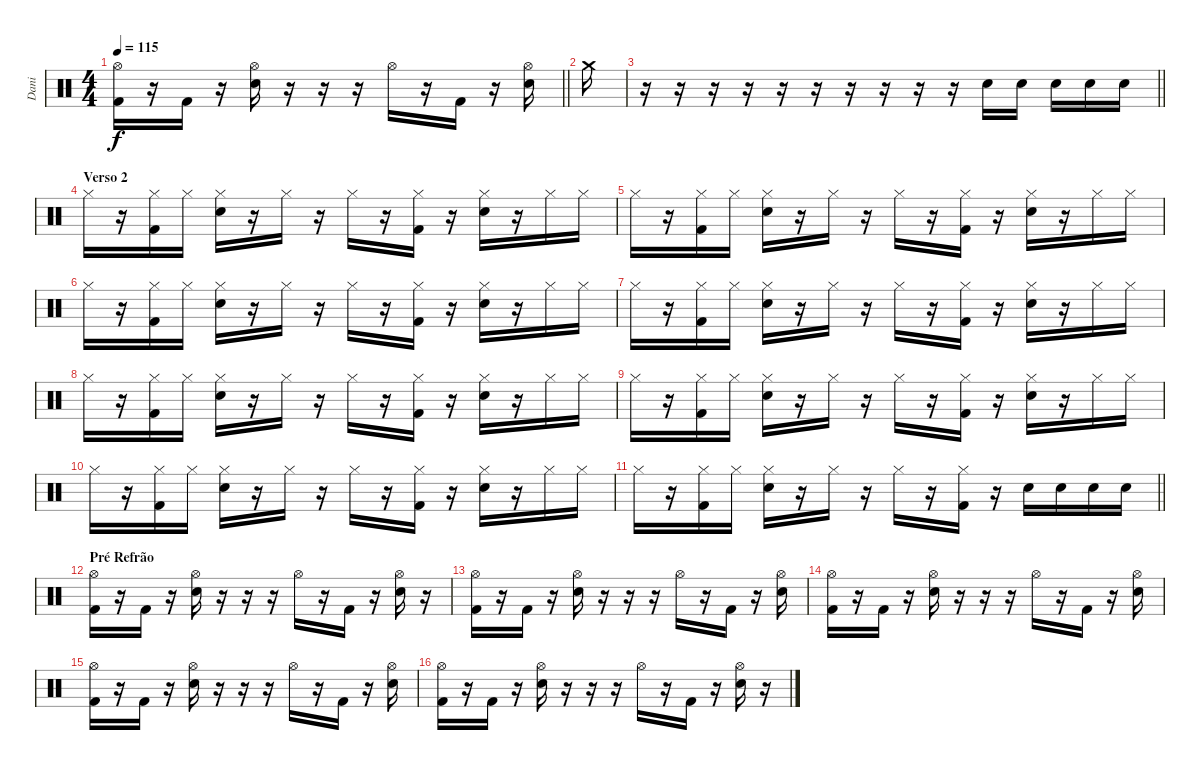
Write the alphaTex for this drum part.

\track ("Dani" "Dani") {instrument percussion}
\staff {score}
\articulation defaults
\ts (4 4)
\tempo 115
\clef neutral
\barLineRight lightlight
\ks c
("Hi-Hat (open)" "Kick (hit) 2").16{dy f} r.16 "Kick (hit) 2".16 r.16 ("Hi-Hat (open)" "Snare (hit) 2").16 r.16 r.16 r.16 "Hi-Hat (open)".16 r.16 "Kick (hit) 2".16 r.16 ("Hi-Hat (open)" "Snare (hit) 2").16 |
"Crash medium (hit)".16 |
\barLineRight lightlight
r.16 r.16 r.16 r.16 r.16 r.16 r.16 r.16 r.16 r.16 "Snare (hit) 2".16 "Snare (hit) 2".16 "Snare (hit) 2".16 "Snare (hit) 2".16 "Snare (hit) 2".16 |
\section ("" "Verso 2")
"Hi-Hat (closed)".16 r.16 ("Hi-Hat (closed)" "Kick (hit) 2").16 "Hi-Hat (closed)".16 ("Hi-Hat (closed)" "Snare (hit) 2").16 r.16 "Hi-Hat (closed)".16 r.16 "Hi-Hat (closed)".16 r.16 ("Hi-Hat (closed)" "Kick (hit) 2").16 r.16 ("Hi-Hat (closed)" "Snare (hit) 2").16 r.16 "Hi-Hat (closed)".16 "Hi-Hat (closed)".16 |
"Hi-Hat (closed)".16 r.16 ("Hi-Hat (closed)" "Kick (hit) 2").16 "Hi-Hat (closed)".16 ("Hi-Hat (closed)" "Snare (hit) 2").16 r.16 "Hi-Hat (closed)".16 r.16 "Hi-Hat (closed)".16 r.16 ("Hi-Hat (closed)" "Kick (hit) 2").16 r.16 ("Hi-Hat (closed)" "Snare (hit) 2").16 r.16 "Hi-Hat (closed)".16 "Hi-Hat (closed)".16 |
"Hi-Hat (closed)".16 r.16 ("Hi-Hat (closed)" "Kick (hit) 2").16 "Hi-Hat (closed)".16 ("Hi-Hat (closed)" "Snare (hit) 2").16 r.16 "Hi-Hat (closed)".16 r.16 "Hi-Hat (closed)".16 r.16 ("Hi-Hat (closed)" "Kick (hit) 2").16 r.16 ("Hi-Hat (closed)" "Snare (hit) 2").16 r.16 "Hi-Hat (closed)".16 "Hi-Hat (closed)".16 |
"Hi-Hat (closed)".16 r.16 ("Hi-Hat (closed)" "Kick (hit) 2").16 "Hi-Hat (closed)".16 ("Hi-Hat (closed)" "Snare (hit) 2").16 r.16 "Hi-Hat (closed)".16 r.16 "Hi-Hat (closed)".16 r.16 ("Hi-Hat (closed)" "Kick (hit) 2").16 r.16 ("Hi-Hat (closed)" "Snare (hit) 2").16 r.16 "Hi-Hat (closed)".16 "Hi-Hat (closed)".16 |
"Hi-Hat (closed)".16 r.16 ("Hi-Hat (closed)" "Kick (hit) 2").16 "Hi-Hat (closed)".16 ("Hi-Hat (closed)" "Snare (hit) 2").16 r.16 "Hi-Hat (closed)".16 r.16 "Hi-Hat (closed)".16 r.16 ("Hi-Hat (closed)" "Kick (hit) 2").16 r.16 ("Hi-Hat (closed)" "Snare (hit) 2").16 r.16 "Hi-Hat (closed)".16 "Hi-Hat (closed)".16 |
"Hi-Hat (closed)".16 r.16 ("Hi-Hat (closed)" "Kick (hit) 2").16 "Hi-Hat (closed)".16 ("Hi-Hat (closed)" "Snare (hit) 2").16 r.16 "Hi-Hat (closed)".16 r.16 "Hi-Hat (closed)".16 r.16 ("Hi-Hat (closed)" "Kick (hit) 2").16 r.16 ("Hi-Hat (closed)" "Snare (hit) 2").16 r.16 "Hi-Hat (closed)".16 "Hi-Hat (closed)".16 |
"Hi-Hat (closed)".16 r.16 ("Hi-Hat (closed)" "Kick (hit) 2").16 "Hi-Hat (closed)".16 ("Hi-Hat (closed)" "Snare (hit) 2").16 r.16 "Hi-Hat (closed)".16 r.16 "Hi-Hat (closed)".16 r.16 ("Hi-Hat (closed)" "Kick (hit) 2").16 r.16 ("Hi-Hat (closed)" "Snare (hit) 2").16 r.16 "Hi-Hat (closed)".16 "Hi-Hat (closed)".16 |
\barLineRight lightlight "Hi-Hat (closed)".16
r.16 ("Hi-Hat (closed)" "Kick (hit) 2").16 "Hi-Hat (closed)".16 ("Hi-Hat (closed)" "Snare (hit) 2").16 r.16 "Hi-Hat (closed)".16 r.16 "Hi-Hat (closed)".16 r.16 ("Hi-Hat (closed)" "Kick (hit) 2").16 r.16 "Snare (hit) 2".16 "Snare (hit) 2".16 "Snare (hit) 2".16 "Snare (hit) 2".16 |
\section ("" "Pré Refrão")
("Hi-Hat (open)" "Kick (hit) 2").16 r.16 "Kick (hit) 2".16 r.16 ("Hi-Hat (open)" "Snare (hit) 2").16 r.16 r.16 r.16 "Hi-Hat (open)".16 r.16 "Kick (hit) 2".16 r.16 ("Hi-Hat (open)" "Snare (hit) 2").16 r.16 |
("Hi-Hat (open)" "Kick (hit) 2").16 r.16 "Kick (hit) 2".16 r.16 ("Hi-Hat (open)" "Snare (hit) 2").16 r.16 r.16 r.16 "Hi-Hat (open)".16 r.16 "Kick (hit) 2".16 r.16 ("Hi-Hat (open)" "Snare (hit) 2").16 |
("Hi-Hat (open)" "Kick (hit) 2").16 r.16 "Kick (hit) 2".16 r.16 ("Hi-Hat (open)" "Snare (hit) 2").16 r.16 r.16 r.16 "Hi-Hat (open)".16 r.16 "Kick (hit) 2".16 r.16 ("Hi-Hat (open)" "Snare (hit) 2").16 |
("Hi-Hat (open)" "Kick (hit) 2").16 r.16 "Kick (hit) 2".16 r.16 ("Hi-Hat (open)" "Snare (hit) 2").16 r.16 r.16 r.16 "Hi-Hat (open)".16 r.16 "Kick (hit) 2".16 r.16 ("Hi-Hat (open)" "Snare (hit) 2").16 |
("Hi-Hat (open)" "Kick (hit) 2").16 r.16 "Kick (hit) 2".16 r.16 ("Hi-Hat (open)" "Snare (hit) 2").16 r.16 r.16 r.16 "Hi-Hat (open)".16 r.16 "Kick (hit) 2".16 r.16 ("Hi-Hat (open)" "Snare (hit) 2").16 r.16
